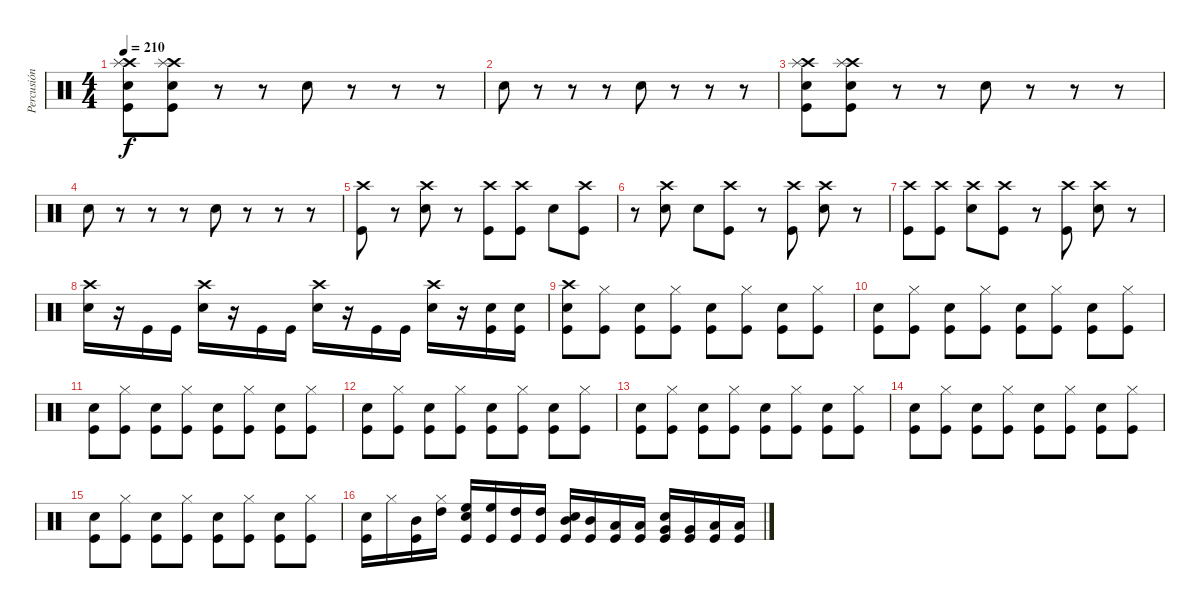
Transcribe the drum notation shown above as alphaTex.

\track ("Percusión" "Percusión") {instrument percussion}
\staff {score}
\articulation defaults
\ts (4 4)
\tempo 210
\clef neutral
\ks c
("Crash high (hit)" "Splash (hit)" "Snare (hit) 2" "Kick (hit)").8{dy f} ("Crash high (hit)" "Splash (hit)" "Snare (hit) 2" "Kick (hit)").8 r.8 r.8 "Snare (hit) 2".8 r.8 r.8 r.8 |
"Snare (hit) 2".8 r.8 r.8 r.8 "Snare (hit) 2".8 r.8 r.8 r.8 |
("Crash high (hit)" "Snare (hit) 2" "Splash (hit)" "Kick (hit)").8 ("Crash high (hit)" "Snare (hit) 2" "Splash (hit)" "Kick (hit)").8 r.8 r.8 "Snare (hit) 2".8 r.8 r.8 r.8 |
"Snare (hit) 2".8 r.8 r.8 r.8 "Snare (hit) 2".8 r.8 r.8 r.8 |
("Crash high (hit)" "Kick (hit)").8 r.8 ("Crash high (hit)" "Snare (hit) 2").8 r.8 ("Crash high (hit)" "Kick (hit)").8 ("Crash high (hit)" "Kick (hit)").8 "Snare (hit) 2".8 ("Crash high (hit)" "Kick (hit)").8 |
r.8 ("Crash high (hit)" "Snare (hit) 2").8 "Snare (hit) 2".8 ("Crash high (hit)" "Kick (hit)").8 r.8 ("Crash high (hit)" "Kick (hit)").8 ("Crash high (hit)" "Snare (hit) 2").8 r.8 |
("Crash high (hit)" "Kick (hit)").8 ("Crash high (hit)" "Kick (hit)").8 ("Crash high (hit)" "Snare (hit) 2").8 ("Crash high (hit)" "Kick (hit)").8 r.8 ("Crash high (hit)" "Kick (hit)").8 ("Crash high (hit)" "Snare (hit) 2").8 r.8 |
("Crash high (hit)" "Snare (hit) 2").16 r.16 "Kick (hit)".16 "Kick (hit)".16 ("Crash high (hit)" "Snare (hit) 2").16 r.16 "Kick (hit)".16 "Kick (hit)".16 ("Crash high (hit)" "Snare (hit) 2").16 r.16 "Kick (hit)".16 "Kick (hit)".16 ("Crash high (hit)" "Snare (hit) 2").16 r.16 ("Snare (hit) 2" "Kick (hit)").16 ("Snare (hit) 2" "Kick (hit)").16 |
("Crash high (hit)" "Snare (hit) 2" "Kick (hit)").8 ("Hi-Hat (closed)" "Kick (hit)").8 ("Snare (hit) 2" "Kick (hit)").8 ("Hi-Hat (closed)" "Kick (hit)").8 ("Snare (hit) 2" "Kick (hit)").8 ("Hi-Hat (closed)" "Kick (hit)").8 ("Snare (hit) 2" "Kick (hit)").8 ("Hi-Hat (closed)" "Kick (hit)").8 |
("Snare (hit) 2" "Kick (hit)").8 ("Hi-Hat (closed)" "Kick (hit)").8 ("Snare (hit) 2" "Kick (hit)").8 ("Hi-Hat (closed)" "Kick (hit)").8 ("Snare (hit) 2" "Kick (hit)").8 ("Hi-Hat (closed)" "Kick (hit)").8 ("Snare (hit) 2" "Kick (hit)").8 ("Hi-Hat (closed)" "Kick (hit)").8 |
("Snare (hit) 2" "Kick (hit)").8 ("Hi-Hat (closed)" "Kick (hit)").8 ("Snare (hit) 2" "Kick (hit)").8 ("Hi-Hat (closed)" "Kick (hit)").8 ("Snare (hit) 2" "Kick (hit)").8 ("Hi-Hat (closed)" "Kick (hit)").8 ("Snare (hit) 2" "Kick (hit)").8 ("Hi-Hat (closed)" "Kick (hit)").8 |
("Snare (hit) 2" "Kick (hit)").8 ("Hi-Hat (closed)" "Kick (hit)").8 ("Snare (hit) 2" "Kick (hit)").8 ("Hi-Hat (closed)" "Kick (hit)").8 ("Snare (hit) 2" "Kick (hit)").8 ("Hi-Hat (closed)" "Kick (hit)").8 ("Snare (hit) 2" "Kick (hit)").8 ("Hi-Hat (closed)" "Kick (hit)").8 |
("Snare (hit) 2" "Kick (hit)").8 ("Hi-Hat (closed)" "Kick (hit)").8 ("Snare (hit) 2" "Kick (hit)").8 ("Hi-Hat (closed)" "Kick (hit)").8 ("Snare (hit) 2" "Kick (hit)").8 ("Hi-Hat (closed)" "Kick (hit)").8 ("Snare (hit) 2" "Kick (hit)").8 ("Hi-Hat (closed)" "Kick (hit)").8 |
("Snare (hit) 2" "Kick (hit)").8 ("Hi-Hat (closed)" "Kick (hit)").8 ("Snare (hit) 2" "Kick (hit)").8 ("Hi-Hat (closed)" "Kick (hit)").8 ("Snare (hit) 2" "Kick (hit)").8 ("Hi-Hat (closed)" "Kick (hit)").8 ("Snare (hit) 2" "Kick (hit)").8 ("Hi-Hat (closed)" "Kick (hit)").8 |
("Snare (hit) 2" "Kick (hit)").8 ("Hi-Hat (closed)" "Kick (hit)").8 ("Snare (hit) 2" "Kick (hit)").8 ("Hi-Hat (closed)" "Kick (hit)").8 ("Snare (hit) 2" "Kick (hit)").8 ("Hi-Hat (closed)" "Kick (hit)").8 ("Snare (hit) 2" "Kick (hit)").8 ("Hi-Hat (closed)" "Kick (hit)").8 |
("Snare (hit) 2" "Kick (hit)").16 "Hi-Hat (closed)".16 ("Mid Tom (hit)" "Kick (hit)").16 ("Hi-Hat (closed)" "High Tom (hit)").16 ("High Floor Tom (hit)" "Snare (hit) 2" "Kick (hit)").16 ("High Floor Tom (hit)" "Kick (hit)").16 ("High Tom (hit)" "Kick (hit)").16 ("High Tom (hit)" "Kick (hit)").16 ("Mid Tom (hit)" "Snare (hit) 2" "Kick (hit)").16 ("Mid Tom (hit)" "Kick (hit)").16 ("Low Tom (hit)" "Kick (hit)").16 ("Low Tom (hit)" "Kick (hit)").16 ("Very Low Tom (hit)" "Snare (hit) 2" "Kick (hit)").16 ("Very Low Tom (hit)" "Kick (hit)").16 ("Low Floor Tom (hit)" "Kick (hit)").16 ("Low Floor Tom (hit)" "Kick (hit)").16
